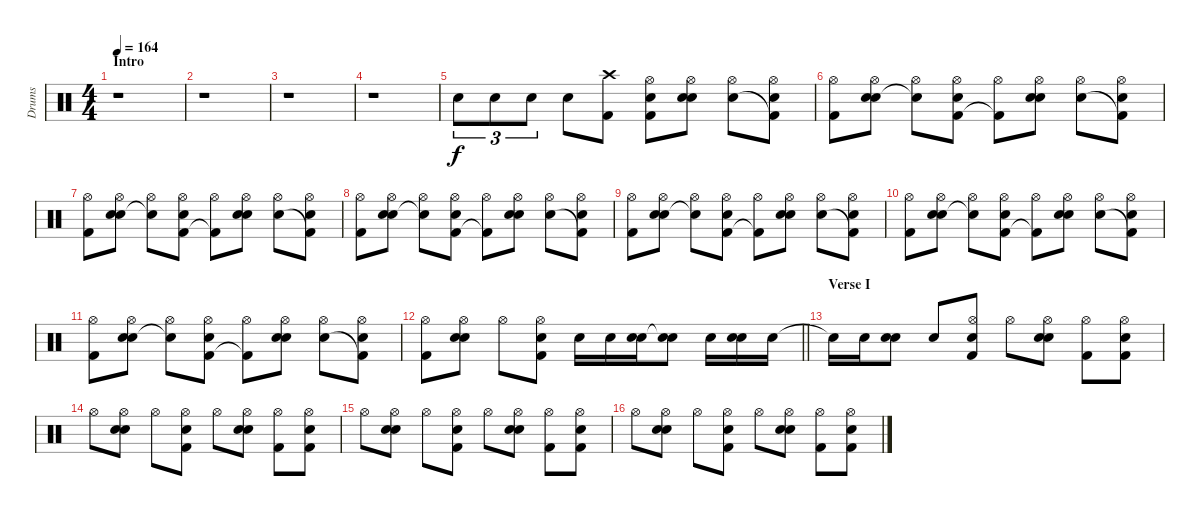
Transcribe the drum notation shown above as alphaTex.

\track ("Drums" "Drums") {instrument percussion}
\staff {score}
\articulation defaults
\ts (4 4)
\section ("" "Intro")
\tempo 164
\clef neutral
\ks c
r.1{dy f} |
r.1 |
r.1 |
r.1 |
"Snare (hit) 2".8{tu (3 2)} "Snare (hit) 2".8{tu (3 2)} "Snare (hit) 2".8{tu (3 2)} "Snare (hit) 2".8 ("Kick (hit) 2" "Crash high (hit)").8 ("Kick (hit) 2" "Hi-Hat (open)" "Snare (hit)").8 ("Snare (hit) 2" "Hi-Hat (open)" "Hand Clap (hit)").8 ("Snare (hit) 2" "Hi-Hat (open)").8 ("Kick (hit) 2"{t} "Hi-Hat (open)" "Hand Clap (hit)").8 |
("Kick (hit) 2" "Hi-Hat (open)").8 ("Snare (hit) 2" "Hi-Hat (open)" "Hand Clap (hit)").8 ("Snare (hit) 2"{t} "Hi-Hat (open)").8 ("Kick (hit) 2" "Hi-Hat (open)" "Hand Clap (hit)").8 ("Kick (hit) 2"{t} "Hi-Hat (open)").8 ("Snare (hit) 2" "Hi-Hat (open)" "Hand Clap (hit)").8 ("Snare (hit) 2" "Hi-Hat (open)").8 ("Kick (hit) 2"{t} "Hi-Hat (open)" "Hand Clap (hit)").8 |
("Kick (hit) 2" "Hi-Hat (open)").8 ("Snare (hit) 2" "Hi-Hat (open)" "Hand Clap (hit)").8 ("Snare (hit) 2"{t} "Hi-Hat (open)").8 ("Kick (hit) 2" "Hi-Hat (open)" "Hand Clap (hit)").8 ("Kick (hit) 2"{t} "Hi-Hat (open)").8 ("Snare (hit) 2" "Hi-Hat (open)" "Hand Clap (hit)").8 ("Snare (hit) 2" "Hi-Hat (open)").8 ("Kick (hit) 2"{t} "Hi-Hat (open)" "Hand Clap (hit)").8 |
("Kick (hit) 2" "Hi-Hat (open)").8 ("Snare (hit) 2" "Hi-Hat (open)" "Hand Clap (hit)").8 ("Snare (hit) 2"{t} "Hi-Hat (open)").8 ("Kick (hit) 2" "Hi-Hat (open)" "Hand Clap (hit)").8 ("Kick (hit) 2"{t} "Hi-Hat (open)").8 ("Snare (hit) 2" "Hi-Hat (open)" "Hand Clap (hit)").8 ("Snare (hit) 2" "Hi-Hat (open)").8 ("Kick (hit) 2"{t} "Hi-Hat (open)" "Hand Clap (hit)").8 |
("Kick (hit) 2" "Hi-Hat (open)").8 ("Snare (hit) 2" "Hi-Hat (open)" "Hand Clap (hit)").8 ("Snare (hit) 2"{t} "Hi-Hat (open)").8 ("Kick (hit) 2" "Hi-Hat (open)" "Hand Clap (hit)").8 ("Kick (hit) 2"{t} "Hi-Hat (open)").8 ("Snare (hit) 2" "Hi-Hat (open)" "Hand Clap (hit)").8 ("Snare (hit) 2" "Hi-Hat (open)").8 ("Kick (hit) 2"{t} "Hi-Hat (open)" "Hand Clap (hit)").8 |
("Kick (hit) 2" "Hi-Hat (open)").8 ("Snare (hit) 2" "Hi-Hat (open)" "Hand Clap (hit)").8 ("Snare (hit) 2"{t} "Hi-Hat (open)").8 ("Kick (hit) 2" "Hi-Hat (open)" "Hand Clap (hit)").8 ("Kick (hit) 2"{t} "Hi-Hat (open)").8 ("Snare (hit) 2" "Hi-Hat (open)" "Hand Clap (hit)").8 ("Snare (hit) 2" "Hi-Hat (open)").8 ("Kick (hit) 2"{t} "Hi-Hat (open)" "Hand Clap (hit)").8 |
("Kick (hit) 2" "Hi-Hat (open)").8 ("Snare (hit) 2" "Hi-Hat (open)" "Hand Clap (hit)").8 ("Snare (hit) 2"{t} "Hi-Hat (open)").8 ("Kick (hit) 2" "Hi-Hat (open)" "Hand Clap (hit)").8 ("Kick (hit) 2"{t} "Hi-Hat (open)").8 ("Snare (hit) 2" "Hi-Hat (open)" "Hand Clap (hit)").8 ("Snare (hit) 2" "Hi-Hat (open)").8 ("Kick (hit) 2"{t} "Hi-Hat (open)" "Hand Clap (hit)").8 |
\barLineRight lightlight
("Kick (hit) 2" "Hi-Hat (open)").8 ("Snare (hit) 2" "Hi-Hat (open)" "Hand Clap (hit)").8 "Hi-Hat (open)".8 ("Kick (hit) 2" "Hi-Hat (open)" "Hand Clap (hit)").8 "Snare (hit) 2".16 "Snare (hit) 2".16 ("Snare (hit) 2" "Hand Clap (hit)").16 ("Snare (hit) 2" "Hand Clap (hit)"{t}).8 "Snare (hit) 2".16 ("Snare (hit) 2" "Hand Clap (hit)").16 "Snare (hit) 2".16 |
\section ("" "Verse I")
"Snare (hit) 2"{t}.16 "Snare (hit) 2".16 ("Snare (hit) 2" "Hand Clap (hit)").8 "Snare (hit) 2".8 ("Kick (hit) 2" "Hi-Hat (open)" "Hand Clap (hit)").8 "Hi-Hat (open)".8 ("Snare (hit) 2" "Hi-Hat (open)" "Hand Clap (hit)").8 ("Kick (hit) 2" "Hi-Hat (open)").8 ("Kick (hit) 2" "Hi-Hat (open)" "Hand Clap (hit)").8 |
"Hi-Hat (open)".8 ("Snare (hit) 2" "Hi-Hat (open)" "Hand Clap (hit)").8 "Hi-Hat (open)".8 ("Kick (hit) 2" "Hi-Hat (open)" "Hand Clap (hit)").8 "Hi-Hat (open)".8 ("Snare (hit) 2" "Hi-Hat (open)" "Hand Clap (hit)").8 ("Kick (hit) 2" "Hi-Hat (open)").8 ("Kick (hit) 2" "Hi-Hat (open)" "Hand Clap (hit)").8 |
"Hi-Hat (open)".8 ("Snare (hit) 2" "Hi-Hat (open)" "Hand Clap (hit)").8 "Hi-Hat (open)".8 ("Kick (hit) 2" "Hi-Hat (open)" "Hand Clap (hit)").8 "Hi-Hat (open)".8 ("Snare (hit) 2" "Hi-Hat (open)" "Hand Clap (hit)").8 ("Kick (hit) 2" "Hi-Hat (open)").8 ("Kick (hit) 2" "Hi-Hat (open)" "Hand Clap (hit)").8 |
"Hi-Hat (open)".8 ("Snare (hit) 2" "Hi-Hat (open)" "Hand Clap (hit)").8 "Hi-Hat (open)".8 ("Kick (hit) 2" "Hi-Hat (open)" "Hand Clap (hit)").8 "Hi-Hat (open)".8 ("Snare (hit) 2" "Hi-Hat (open)" "Hand Clap (hit)").8 ("Kick (hit) 2" "Hi-Hat (open)").8 ("Kick (hit) 2" "Hi-Hat (open)" "Hand Clap (hit)").8
